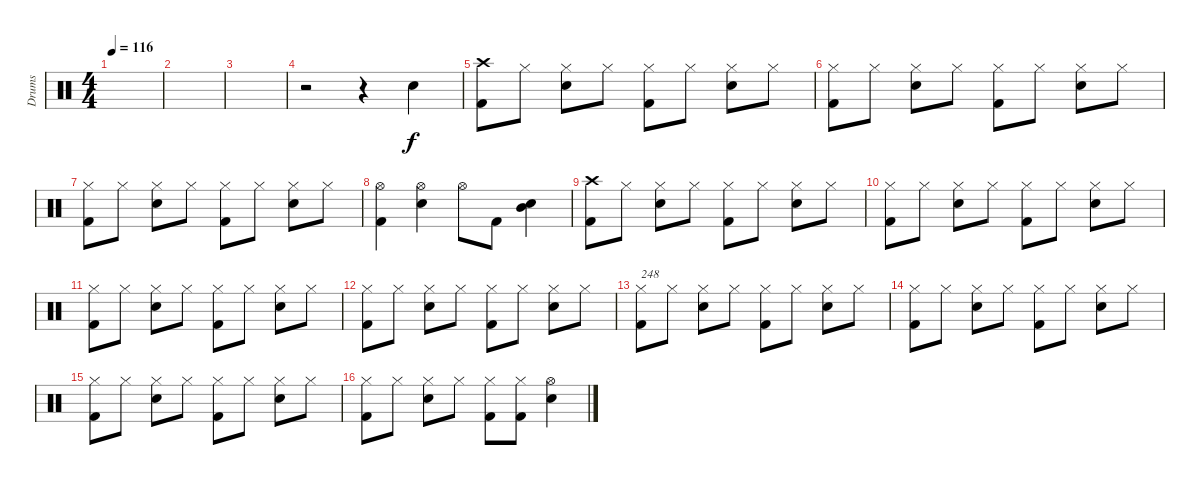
\track ("Drums" "Drums") {instrument percussion}
\staff {score}
\articulation defaults
\ts (4 4)
\tempo 116
\clef neutral
\ks c
|
|
|
r.2 r.4 "Snare (hit) 2".4 |
("Crash high (hit)" "Kick (hit) 2").8 "Hi-Hat (closed)".8 ("Hi-Hat (closed)" "Snare (hit) 2").8 "Hi-Hat (closed)".8 ("Hi-Hat (closed)" "Kick (hit) 2").8 "Hi-Hat (closed)".8 ("Hi-Hat (closed)" "Snare (hit) 2").8 "Hi-Hat (closed)".8 |
("Hi-Hat (closed)" "Kick (hit) 2").8 "Hi-Hat (closed)".8 ("Hi-Hat (closed)" "Snare (hit) 2").8 "Hi-Hat (closed)".8 ("Hi-Hat (closed)" "Kick (hit) 2").8 "Hi-Hat (closed)".8 ("Hi-Hat (closed)" "Snare (hit) 2").8 "Hi-Hat (closed)".8 |
("Hi-Hat (closed)" "Kick (hit) 2").8 "Hi-Hat (closed)".8 ("Hi-Hat (closed)" "Snare (hit) 2").8 "Hi-Hat (closed)".8 ("Hi-Hat (closed)" "Kick (hit) 2").8 "Hi-Hat (closed)".8 ("Hi-Hat (closed)" "Snare (hit) 2").8 "Hi-Hat (closed)".8 |
("Hi-Hat (open)" "Kick (hit) 2").4 ("Hi-Hat (open)" "Snare (hit) 2").4 "Hi-Hat (open)".8 "Kick (hit) 2".8 ("Snare (hit) 2" "Mid Tom (hit)").4 |
("Crash high (hit)" "Kick (hit) 2").8 "Hi-Hat (closed)".8 ("Hi-Hat (closed)" "Snare (hit) 2").8 "Hi-Hat (closed)".8 ("Hi-Hat (closed)" "Kick (hit) 2").8 "Hi-Hat (closed)".8 ("Hi-Hat (closed)" "Snare (hit) 2").8 "Hi-Hat (closed)".8 |
("Hi-Hat (closed)" "Kick (hit) 2").8 "Hi-Hat (closed)".8 ("Hi-Hat (closed)" "Snare (hit) 2").8 "Hi-Hat (closed)".8 ("Hi-Hat (closed)" "Kick (hit) 2").8 "Hi-Hat (closed)".8 ("Hi-Hat (closed)" "Snare (hit) 2").8 "Hi-Hat (closed)".8 |
("Hi-Hat (closed)" "Kick (hit) 2").8 "Hi-Hat (closed)".8 ("Hi-Hat (closed)" "Snare (hit) 2").8 "Hi-Hat (closed)".8 ("Hi-Hat (closed)" "Kick (hit) 2").8 "Hi-Hat (closed)".8 ("Hi-Hat (closed)" "Snare (hit) 2").8 "Hi-Hat (closed)".8 |
("Hi-Hat (closed)" "Kick (hit) 2").8 "Hi-Hat (closed)".8 ("Hi-Hat (closed)" "Snare (hit) 2").8 "Hi-Hat (closed)".8 ("Hi-Hat (closed)" "Kick (hit) 2").8 "Hi-Hat (closed)".8 ("Hi-Hat (closed)" "Snare (hit) 2").8 "Hi-Hat (closed)".8 |
("Hi-Hat (closed)" "Kick (hit) 2").8{txt "248"} "Hi-Hat (closed)".8 ("Hi-Hat (closed)" "Snare (hit) 2").8 "Hi-Hat (closed)".8 ("Hi-Hat (closed)" "Kick (hit) 2").8 "Hi-Hat (closed)".8 ("Hi-Hat (closed)" "Snare (hit) 2").8 "Hi-Hat (closed)".8 |
("Hi-Hat (closed)" "Kick (hit) 2").8 "Hi-Hat (closed)".8 ("Hi-Hat (closed)" "Snare (hit) 2").8 "Hi-Hat (closed)".8 ("Hi-Hat (closed)" "Kick (hit) 2").8 "Hi-Hat (closed)".8 ("Hi-Hat (closed)" "Snare (hit) 2").8 "Hi-Hat (closed)".8 |
("Hi-Hat (closed)" "Kick (hit) 2").8 "Hi-Hat (closed)".8 ("Hi-Hat (closed)" "Snare (hit) 2").8 "Hi-Hat (closed)".8 ("Hi-Hat (closed)" "Kick (hit) 2").8 "Hi-Hat (closed)".8 ("Hi-Hat (closed)" "Snare (hit) 2").8 "Hi-Hat (closed)".8 |
("Hi-Hat (closed)" "Kick (hit) 2").8 "Hi-Hat (closed)".8 ("Hi-Hat (closed)" "Snare (hit) 2").8 "Hi-Hat (closed)".8 ("Hi-Hat (closed)" "Kick (hit) 2").8 ("Hi-Hat (closed)" "Kick (hit) 2").8 ("Hi-Hat (open)" "Snare (hit) 2").4
